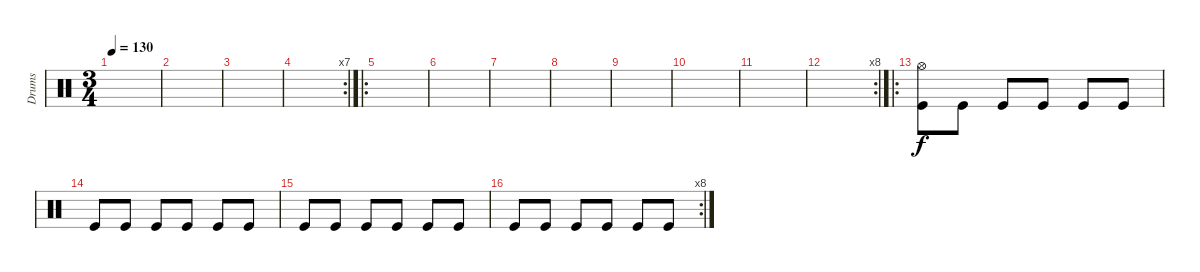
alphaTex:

\track ("Drums" "Drums") {instrument percussion}
\staff {score}
\articulation defaults
\ts (3 4)
\tempo 130
\clef neutral
\ks c
|
|
|
\rc 7
|
\ro
|
|
|
|
|
|
|
\rc 8
|
\ro
("Hi-Hat (open)" "Kick (hit)").8 "Kick (hit)".8 "Kick (hit)".8 "Kick (hit)".8 "Kick (hit)".8 "Kick (hit)".8 |
"Kick (hit)".8 "Kick (hit)".8 "Kick (hit)".8 "Kick (hit)".8 "Kick (hit)".8 "Kick (hit)".8 |
"Kick (hit)".8 "Kick (hit)".8 "Kick (hit)".8 "Kick (hit)".8 "Kick (hit)".8 "Kick (hit)".8 |
\rc 8 "Kick (hit)".8 "Kick (hit)".8 "Kick (hit)".8 "Kick (hit)".8 "Kick (hit)".8 "Kick (hit)".8
